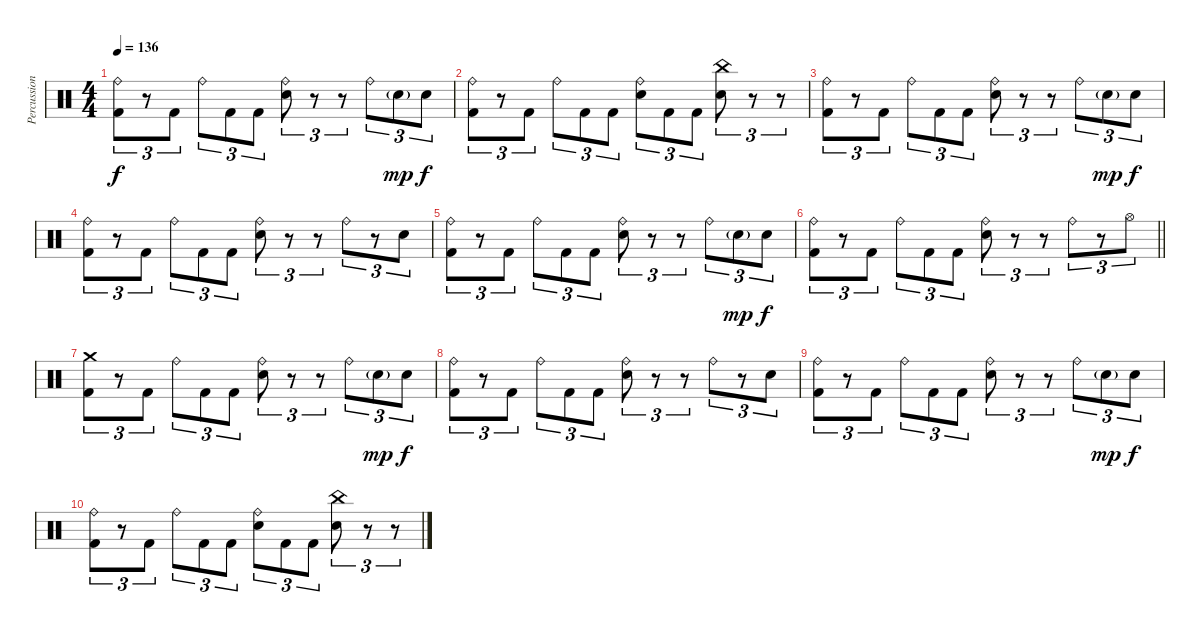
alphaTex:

\track ("Percussion" "Percussion") {instrument percussion}
\staff {score}
\articulation defaults
\ts (4 4)
\tempo 136
\clef neutral
\ks c
("Ride (bell)" "Kick (hit) 2").8{tu (3 2) dy f} r.8{tu (3 2)} "Kick (hit) 2".8{tu (3 2)} "Ride (bell)".8{tu (3 2)} "Kick (hit) 2".8{tu (3 2)} "Kick (hit) 2".8{tu (3 2)} ("Ride (bell)" "Electric Snare (hit)").8{tu (3 2)} r.8{tu (3 2)} r.8{tu (3 2)} "Ride (bell)".8{tu (3 2)} "Electric Snare (hit)"{g}.8{tu (3 2) dy mp} "Electric Snare (hit)".8{tu (3 2) dy f} |
("Ride (bell)" "Kick (hit) 2").8{tu (3 2)} r.8{tu (3 2)} "Kick (hit) 2".8{tu (3 2)} "Ride (bell)".8{tu (3 2)} "Kick (hit) 2".8{tu (3 2)} "Kick (hit) 2".8{tu (3 2)} ("Ride (bell)" "Electric Snare (hit)").8{tu (3 2)} "Kick (hit) 2".8{tu (3 2)} "Kick (hit) 2".8{tu (3 2)} ("China (hit)" "Electric Snare (hit)").8{tu (3 2)} r.8{tu (3 2)} r.8{tu (3 2)} |
("Ride (bell)" "Kick (hit) 2").8{tu (3 2)} r.8{tu (3 2)} "Kick (hit) 2".8{tu (3 2)} "Ride (bell)".8{tu (3 2)} "Kick (hit) 2".8{tu (3 2)} "Kick (hit) 2".8{tu (3 2)} ("Ride (bell)" "Electric Snare (hit)").8{tu (3 2)} r.8{tu (3 2)} r.8{tu (3 2)} "Ride (bell)".8{tu (3 2)} "Electric Snare (hit)"{g}.8{tu (3 2) dy mp} "Electric Snare (hit)".8{tu (3 2) dy f} |
("Ride (bell)" "Kick (hit) 2").8{tu (3 2)} r.8{tu (3 2)} "Kick (hit) 2".8{tu (3 2)} "Ride (bell)".8{tu (3 2)} "Kick (hit) 2".8{tu (3 2)} "Kick (hit) 2".8{tu (3 2)} ("Ride (bell)" "Electric Snare (hit)").8{tu (3 2)} r.8{tu (3 2)} r.8{tu (3 2)} "Ride (bell)".8{tu (3 2)} r.8{tu (3 2)} "Electric Snare (hit)".8{tu (3 2)} |
("Ride (bell)" "Kick (hit) 2").8{tu (3 2)} r.8{tu (3 2)} "Kick (hit) 2".8{tu (3 2)} "Ride (bell)".8{tu (3 2)} "Kick (hit) 2".8{tu (3 2)} "Kick (hit) 2".8{tu (3 2)} ("Ride (bell)" "Electric Snare (hit)").8{tu (3 2)} r.8{tu (3 2)} r.8{tu (3 2)} "Ride (bell)".8{tu (3 2)} "Electric Snare (hit)"{g}.8{tu (3 2) dy mp} "Electric Snare (hit)".8{tu (3 2) dy f} |
\barLineRight lightlight
("Ride (bell)" "Kick (hit) 2").8{tu (3 2)} r.8{tu (3 2)} "Kick (hit) 2".8{tu (3 2)} "Ride (bell)".8{tu (3 2)} "Kick (hit) 2".8{tu (3 2)} "Kick (hit) 2".8{tu (3 2)} ("Ride (bell)" "Electric Snare (hit)").8{tu (3 2)} r.8{tu (3 2)} r.8{tu (3 2)} "Ride (bell)".8{tu (3 2)} r.8{tu (3 2)} "Hi-Hat (open)".8{tu (3 2)} |
("Crash medium (hit)" "Kick (hit) 2").8{tu (3 2)} r.8{tu (3 2)} "Kick (hit) 2".8{tu (3 2)} "Ride (bell)".8{tu (3 2)} "Kick (hit) 2".8{tu (3 2)} "Kick (hit) 2".8{tu (3 2)} ("Ride (bell)" "Electric Snare (hit)").8{tu (3 2)} r.8{tu (3 2)} r.8{tu (3 2)} "Ride (bell)".8{tu (3 2)} "Electric Snare (hit)"{g}.8{tu (3 2) dy mp} "Electric Snare (hit)".8{tu (3 2) dy f} |
("Ride (bell)" "Kick (hit) 2").8{tu (3 2)} r.8{tu (3 2)} "Kick (hit) 2".8{tu (3 2)} "Ride (bell)".8{tu (3 2)} "Kick (hit) 2".8{tu (3 2)} "Kick (hit) 2".8{tu (3 2)} ("Ride (bell)" "Electric Snare (hit)").8{tu (3 2)} r.8{tu (3 2)} r.8{tu (3 2)} "Ride (bell)".8{tu (3 2)} r.8{tu (3 2)} "Electric Snare (hit)".8{tu (3 2)} |
("Ride (bell)" "Kick (hit) 2").8{tu (3 2)} r.8{tu (3 2)} "Kick (hit) 2".8{tu (3 2)} "Ride (bell)".8{tu (3 2)} "Kick (hit) 2".8{tu (3 2)} "Kick (hit) 2".8{tu (3 2)} ("Ride (bell)" "Electric Snare (hit)").8{tu (3 2)} r.8{tu (3 2)} r.8{tu (3 2)} "Ride (bell)".8{tu (3 2)} "Electric Snare (hit)"{g}.8{tu (3 2) dy mp} "Electric Snare (hit)".8{tu (3 2) dy f} |
("Ride (bell)" "Kick (hit) 2").8{tu (3 2)} r.8{tu (3 2)} "Kick (hit) 2".8{tu (3 2)} "Ride (bell)".8{tu (3 2)} "Kick (hit) 2".8{tu (3 2)} "Kick (hit) 2".8{tu (3 2)} ("Ride (bell)" "Electric Snare (hit)").8{tu (3 2)} "Kick (hit) 2".8{tu (3 2)} "Kick (hit) 2".8{tu (3 2)} ("China (hit)" "Electric Snare (hit)").8{tu (3 2)} r.8{tu (3 2)} r.8{tu (3 2)}
